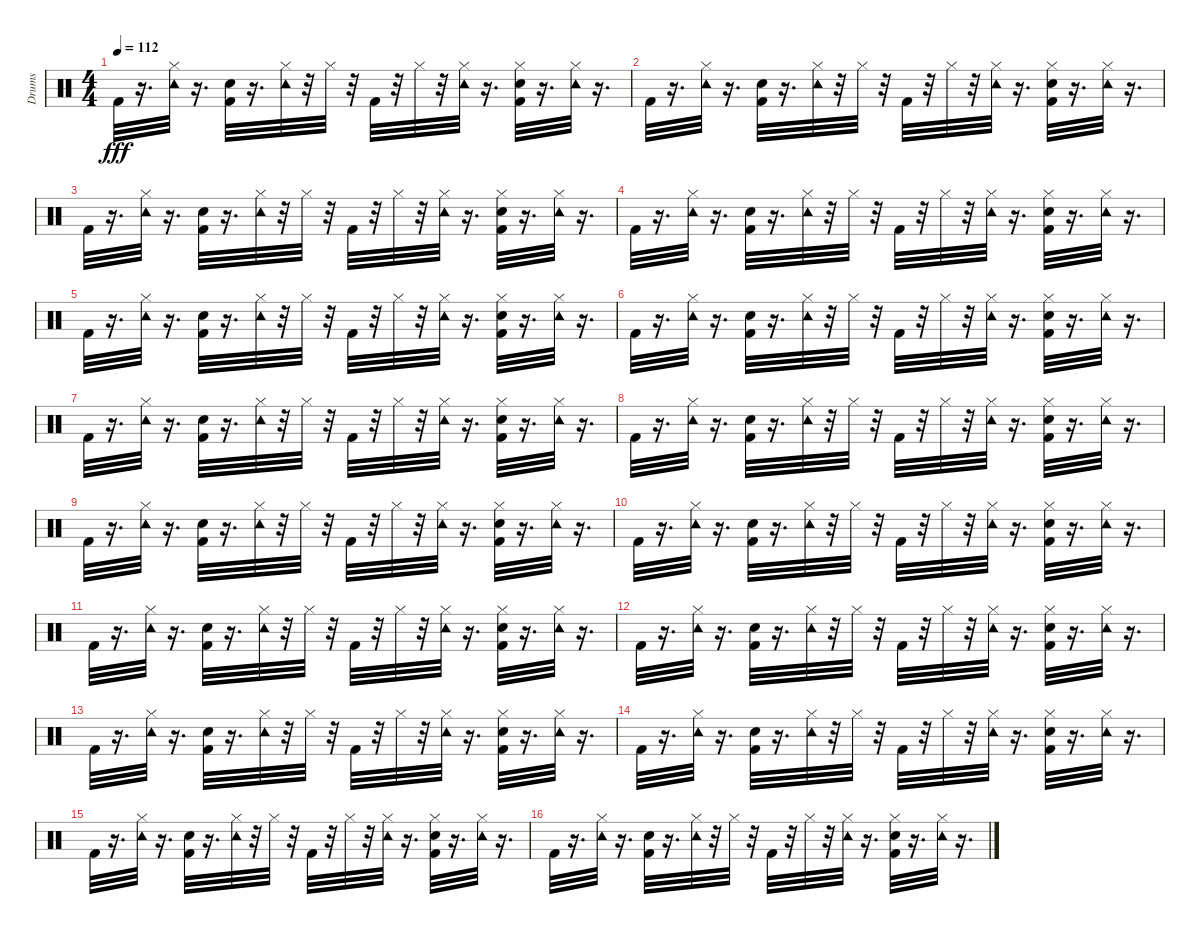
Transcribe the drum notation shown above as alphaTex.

\track ("Drums" "Drums") {instrument percussion}
\staff {score}
\articulation defaults
\ts (4 4)
\tempo 112
\clef neutral
\ks c "Kick (hit) 2".32{dy fff}
r.16{d} ("Tambourine (hit)" "Hi-Hat (closed)").32 r.16{d} ("Snare (hit) 2" "Kick (hit) 2").32 r.16{d} ("Tambourine (hit)" "Hi-Hat (closed)").32 r.32 "Hi-Hat (closed)".32 r.32 "Kick (hit) 2".32 r.32 "Hi-Hat (closed)".32 r.32 ("Tambourine (hit)" "Hi-Hat (closed)").32 r.16{d} ("Snare (hit) 2" "Hi-Hat (closed)" "Kick (hit) 2").32 r.16{d} ("Tambourine (hit)" "Hi-Hat (closed)").32 r.16{d} |
"Kick (hit) 2".32 r.16{d} ("Tambourine (hit)" "Hi-Hat (closed)").32 r.16{d} ("Snare (hit) 2" "Kick (hit) 2").32 r.16{d} ("Tambourine (hit)" "Hi-Hat (closed)").32 r.32 "Hi-Hat (closed)".32 r.32 "Kick (hit) 2".32 r.32 "Hi-Hat (closed)".32 r.32 ("Tambourine (hit)" "Hi-Hat (closed)").32 r.16{d} ("Snare (hit) 2" "Hi-Hat (closed)" "Kick (hit) 2").32 r.16{d} ("Tambourine (hit)" "Hi-Hat (closed)").32 r.16{d} |
"Kick (hit) 2".32{volume 16} r.16{d} ("Tambourine (hit)" "Hi-Hat (closed)").32 r.16{d} ("Snare (hit) 2" "Kick (hit) 2").32 r.16{d} ("Tambourine (hit)" "Hi-Hat (closed)").32 r.32 "Hi-Hat (closed)".32 r.32 "Kick (hit) 2".32 r.32 "Hi-Hat (closed)".32 r.32 ("Tambourine (hit)" "Hi-Hat (closed)").32 r.16{d} ("Snare (hit) 2" "Hi-Hat (closed)" "Kick (hit) 2").32 r.16{d} ("Tambourine (hit)" "Hi-Hat (closed)").32 r.16{d} |
"Kick (hit) 2".32 r.16{d} ("Tambourine (hit)" "Hi-Hat (closed)").32 r.16{d} ("Snare (hit) 2" "Kick (hit) 2").32 r.16{d} ("Tambourine (hit)" "Hi-Hat (closed)").32 r.32 "Hi-Hat (closed)".32 r.32 "Kick (hit) 2".32 r.32 "Hi-Hat (closed)".32 r.32 ("Tambourine (hit)" "Hi-Hat (closed)").32 r.16{d} ("Snare (hit) 2" "Hi-Hat (closed)" "Kick (hit) 2").32 r.16{d} ("Tambourine (hit)" "Hi-Hat (closed)").32 r.16{d} |
"Kick (hit) 2".32 r.16{d} ("Tambourine (hit)" "Hi-Hat (closed)").32 r.16{d} ("Snare (hit) 2" "Kick (hit) 2").32 r.16{d} ("Tambourine (hit)" "Hi-Hat (closed)").32 r.32 "Hi-Hat (closed)".32 r.32 "Kick (hit) 2".32 r.32 "Hi-Hat (closed)".32 r.32 ("Tambourine (hit)" "Hi-Hat (closed)").32 r.16{d} ("Snare (hit) 2" "Hi-Hat (closed)" "Kick (hit) 2").32 r.16{d} ("Tambourine (hit)" "Hi-Hat (closed)").32 r.16{d} |
"Kick (hit) 2".32 r.16{d} ("Tambourine (hit)" "Hi-Hat (closed)").32 r.16{d} ("Snare (hit) 2" "Kick (hit) 2").32 r.16{d} ("Tambourine (hit)" "Hi-Hat (closed)").32 r.32 "Hi-Hat (closed)".32 r.32 "Kick (hit) 2".32 r.32 "Hi-Hat (closed)".32 r.32 ("Tambourine (hit)" "Hi-Hat (closed)").32 r.16{d} ("Snare (hit) 2" "Hi-Hat (closed)" "Kick (hit) 2").32 r.16{d} ("Tambourine (hit)" "Hi-Hat (closed)").32 r.16{d} |
"Kick (hit) 2".32 r.16{d} ("Tambourine (hit)" "Hi-Hat (closed)").32 r.16{d} ("Snare (hit) 2" "Kick (hit) 2").32 r.16{d} ("Tambourine (hit)" "Hi-Hat (closed)").32 r.32 "Hi-Hat (closed)".32 r.32 "Kick (hit) 2".32 r.32 "Hi-Hat (closed)".32 r.32 ("Tambourine (hit)" "Hi-Hat (closed)").32 r.16{d} ("Snare (hit) 2" "Hi-Hat (closed)" "Kick (hit) 2").32 r.16{d} ("Tambourine (hit)" "Hi-Hat (closed)").32 r.16{d} |
"Kick (hit) 2".32 r.16{d} ("Tambourine (hit)" "Hi-Hat (closed)").32 r.16{d} ("Snare (hit) 2" "Kick (hit) 2").32 r.16{d} ("Tambourine (hit)" "Hi-Hat (closed)").32 r.32 "Hi-Hat (closed)".32 r.32 "Kick (hit) 2".32 r.32 "Hi-Hat (closed)".32 r.32 ("Tambourine (hit)" "Hi-Hat (closed)").32 r.16{d} ("Snare (hit) 2" "Hi-Hat (closed)" "Kick (hit) 2").32 r.16{d} ("Tambourine (hit)" "Hi-Hat (closed)").32 r.16{d} |
"Kick (hit) 2".32 r.16{d} ("Tambourine (hit)" "Hi-Hat (closed)").32 r.16{d} ("Snare (hit) 2" "Kick (hit) 2").32 r.16{d} ("Tambourine (hit)" "Hi-Hat (closed)").32 r.32 "Hi-Hat (closed)".32 r.32 "Kick (hit) 2".32 r.32 "Hi-Hat (closed)".32 r.32 ("Tambourine (hit)" "Hi-Hat (closed)").32 r.16{d} ("Snare (hit) 2" "Hi-Hat (closed)" "Kick (hit) 2").32 r.16{d} ("Tambourine (hit)" "Hi-Hat (closed)").32 r.16{d} |
"Kick (hit) 2".32 r.16{d} ("Tambourine (hit)" "Hi-Hat (closed)").32 r.16{d} ("Snare (hit) 2" "Kick (hit) 2").32 r.16{d} ("Tambourine (hit)" "Hi-Hat (closed)").32 r.32 "Hi-Hat (closed)".32 r.32 "Kick (hit) 2".32 r.32 "Hi-Hat (closed)".32 r.32 ("Tambourine (hit)" "Hi-Hat (closed)").32 r.16{d} ("Snare (hit) 2" "Hi-Hat (closed)" "Kick (hit) 2").32 r.16{d} ("Tambourine (hit)" "Hi-Hat (closed)").32 r.16{d} |
"Kick (hit) 2".32{volume 16} r.16{d} ("Tambourine (hit)" "Hi-Hat (closed)").32 r.16{d} ("Snare (hit) 2" "Kick (hit) 2").32 r.16{d} ("Tambourine (hit)" "Hi-Hat (closed)").32 r.32 "Hi-Hat (closed)".32 r.32 "Kick (hit) 2".32 r.32 "Hi-Hat (closed)".32 r.32 ("Tambourine (hit)" "Hi-Hat (closed)").32 r.16{d} ("Snare (hit) 2" "Hi-Hat (closed)" "Kick (hit) 2").32 r.16{d} ("Tambourine (hit)" "Hi-Hat (closed)").32 r.16{d} |
"Kick (hit) 2".32 r.16{d} ("Tambourine (hit)" "Hi-Hat (closed)").32 r.16{d} ("Snare (hit) 2" "Kick (hit) 2").32 r.16{d} ("Tambourine (hit)" "Hi-Hat (closed)").32 r.32 "Hi-Hat (closed)".32 r.32 "Kick (hit) 2".32 r.32 "Hi-Hat (closed)".32 r.32 ("Tambourine (hit)" "Hi-Hat (closed)").32 r.16{d} ("Snare (hit) 2" "Hi-Hat (closed)" "Kick (hit) 2").32 r.16{d} ("Tambourine (hit)" "Hi-Hat (closed)").32 r.16{d} |
"Kick (hit) 2".32 r.16{d} ("Tambourine (hit)" "Hi-Hat (closed)").32 r.16{d} ("Snare (hit) 2" "Kick (hit) 2").32 r.16{d} ("Tambourine (hit)" "Hi-Hat (closed)").32 r.32 "Hi-Hat (closed)".32 r.32 "Kick (hit) 2".32 r.32 "Hi-Hat (closed)".32 r.32 ("Tambourine (hit)" "Hi-Hat (closed)").32 r.16{d} ("Snare (hit) 2" "Hi-Hat (closed)" "Kick (hit) 2").32 r.16{d} ("Tambourine (hit)" "Hi-Hat (closed)").32 r.16{d} |
"Kick (hit) 2".32 r.16{d} ("Tambourine (hit)" "Hi-Hat (closed)").32 r.16{d} ("Snare (hit) 2" "Kick (hit) 2").32 r.16{d} ("Tambourine (hit)" "Hi-Hat (closed)").32 r.32 "Hi-Hat (closed)".32 r.32 "Kick (hit) 2".32 r.32 "Hi-Hat (closed)".32 r.32 ("Tambourine (hit)" "Hi-Hat (closed)").32 r.16{d} ("Snare (hit) 2" "Hi-Hat (closed)" "Kick (hit) 2").32 r.16{d} ("Tambourine (hit)" "Hi-Hat (closed)").32 r.16{d} |
"Kick (hit) 2".32 r.16{d} ("Tambourine (hit)" "Hi-Hat (closed)").32 r.16{d} ("Snare (hit) 2" "Kick (hit) 2").32 r.16{d} ("Tambourine (hit)" "Hi-Hat (closed)").32 r.32 "Hi-Hat (closed)".32 r.32 "Kick (hit) 2".32 r.32 "Hi-Hat (closed)".32 r.32 ("Tambourine (hit)" "Hi-Hat (closed)").32 r.16{d} ("Snare (hit) 2" "Hi-Hat (closed)" "Kick (hit) 2").32 r.16{d} ("Tambourine (hit)" "Hi-Hat (closed)").32 r.16{d} |
"Kick (hit) 2".32 r.16{d} ("Tambourine (hit)" "Hi-Hat (closed)").32 r.16{d} ("Snare (hit) 2" "Kick (hit) 2").32 r.16{d} ("Tambourine (hit)" "Hi-Hat (closed)").32 r.32 "Hi-Hat (closed)".32 r.32 "Kick (hit) 2".32 r.32 "Hi-Hat (closed)".32 r.32 ("Tambourine (hit)" "Hi-Hat (closed)").32 r.16{d} ("Snare (hit) 2" "Hi-Hat (closed)" "Kick (hit) 2").32 r.16{d} ("Tambourine (hit)" "Hi-Hat (closed)").32 r.16{d}
